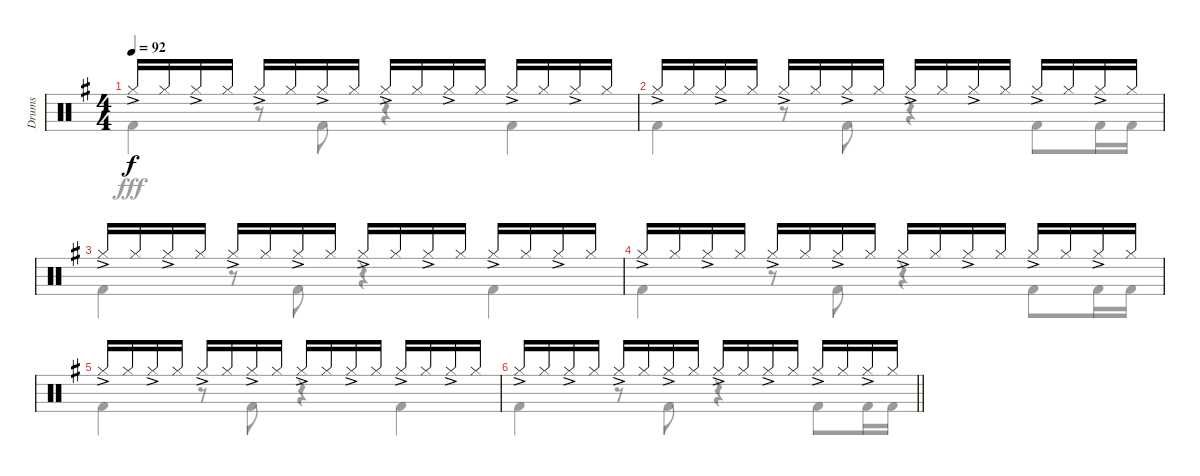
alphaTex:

\track ("Drums" "Drums") {instrument percussion}
\staff {score}
\articulation defaults
\voice
\ts (4 4)
\tempo 92
\clef neutral
\ks g "Hi-Hat (closed)"{ac}.16{dy f} "Hi-Hat (closed)".16 "Hi-Hat (closed)"{ac}.16 "Hi-Hat (closed)".16 "Hi-Hat (closed)"{ac}.16 "Hi-Hat (closed)".16 "Hi-Hat (closed)"{ac}.16 "Hi-Hat (closed)".16 "Hi-Hat (closed)"{ac}.16 "Hi-Hat (closed)".16 "Hi-Hat (closed)"{ac}.16 "Hi-Hat (closed)".16 "Hi-Hat (closed)"{ac}.16 "Hi-Hat (closed)".16 "Hi-Hat (closed)"{ac}.16 "Hi-Hat (closed)".16
|
"Hi-Hat (closed)"{ac}.16 "Hi-Hat (closed)".16 "Hi-Hat (closed)"{ac}.16 "Hi-Hat (closed)".16 "Hi-Hat (closed)"{ac}.16 "Hi-Hat (closed)".16 "Hi-Hat (closed)"{ac}.16 "Hi-Hat (closed)".16 "Hi-Hat (closed)"{ac}.16 "Hi-Hat (closed)".16 "Hi-Hat (closed)"{ac}.16 "Hi-Hat (closed)".16 "Hi-Hat (closed)"{ac}.16 "Hi-Hat (closed)".16 "Hi-Hat (closed)"{ac}.16 "Hi-Hat (closed)".16 |
"Hi-Hat (closed)"{ac}.16 "Hi-Hat (closed)".16 "Hi-Hat (closed)"{ac}.16 "Hi-Hat (closed)".16 "Hi-Hat (closed)"{ac}.16 "Hi-Hat (closed)".16 "Hi-Hat (closed)"{ac}.16 "Hi-Hat (closed)".16 "Hi-Hat (closed)"{ac}.16 "Hi-Hat (closed)".16 "Hi-Hat (closed)"{ac}.16 "Hi-Hat (closed)".16 "Hi-Hat (closed)"{ac}.16 "Hi-Hat (closed)".16 "Hi-Hat (closed)"{ac}.16 "Hi-Hat (closed)".16 |
"Hi-Hat (closed)"{ac}.16 "Hi-Hat (closed)".16 "Hi-Hat (closed)"{ac}.16 "Hi-Hat (closed)".16 "Hi-Hat (closed)"{ac}.16 "Hi-Hat (closed)".16 "Hi-Hat (closed)"{ac}.16 "Hi-Hat (closed)".16 "Hi-Hat (closed)"{ac}.16 "Hi-Hat (closed)".16 "Hi-Hat (closed)"{ac}.16 "Hi-Hat (closed)".16 "Hi-Hat (closed)"{ac}.16 "Hi-Hat (closed)".16 "Hi-Hat (closed)"{ac}.16 "Hi-Hat (closed)".16 |
"Hi-Hat (closed)"{ac}.16 "Hi-Hat (closed)".16 "Hi-Hat (closed)"{ac}.16 "Hi-Hat (closed)".16 "Hi-Hat (closed)"{ac}.16 "Hi-Hat (closed)".16 "Hi-Hat (closed)"{ac}.16 "Hi-Hat (closed)".16 "Hi-Hat (closed)"{ac}.16 "Hi-Hat (closed)".16 "Hi-Hat (closed)"{ac}.16 "Hi-Hat (closed)".16 "Hi-Hat (closed)"{ac}.16 "Hi-Hat (closed)".16 "Hi-Hat (closed)"{ac}.16 "Hi-Hat (closed)".16 |
\barLineRight lightlight "Hi-Hat (closed)"{ac}.16{volume 0} "Hi-Hat (closed)".16 "Hi-Hat (closed)"{ac}.16 "Hi-Hat (closed)".16 "Hi-Hat (closed)"{ac}.16 "Hi-Hat (closed)".16 "Hi-Hat (closed)"{ac}.16 "Hi-Hat (closed)".16 "Hi-Hat (closed)"{ac}.16 "Hi-Hat (closed)".16 "Hi-Hat (closed)"{ac}.16 "Hi-Hat (closed)".16 "Hi-Hat (closed)"{ac}.16 "Hi-Hat (closed)".16 "Hi-Hat (closed)"{ac}.16 "Hi-Hat (closed)".16
\voice
\clef neutral
\ottava regular
\simile none
\ks g "Kick (hit) 2".4{dy fff}
r.8 "Kick (hit) 2".8 r.4 "Kick (hit) 2".4 |
"Kick (hit) 2".4 r.8 "Kick (hit) 2".8 r.4 "Kick (hit) 2".8 "Kick (hit) 2".16 "Kick (hit) 2".16 |
"Kick (hit) 2".4 r.8 "Kick (hit) 2".8 r.4 "Kick (hit) 2".4 |
"Kick (hit) 2".4 r.8 "Kick (hit) 2".8 r.4 "Kick (hit) 2".8 "Kick (hit) 2".16 "Kick (hit) 2".16 |
"Kick (hit) 2".4 r.8 "Kick (hit) 2".8 r.4 "Kick (hit) 2".4 |
\barLineRight lightlight "Kick (hit) 2".4
r.8 "Kick (hit) 2".8 r.4 "Kick (hit) 2".8 "Kick (hit) 2".16 "Kick (hit) 2".16
